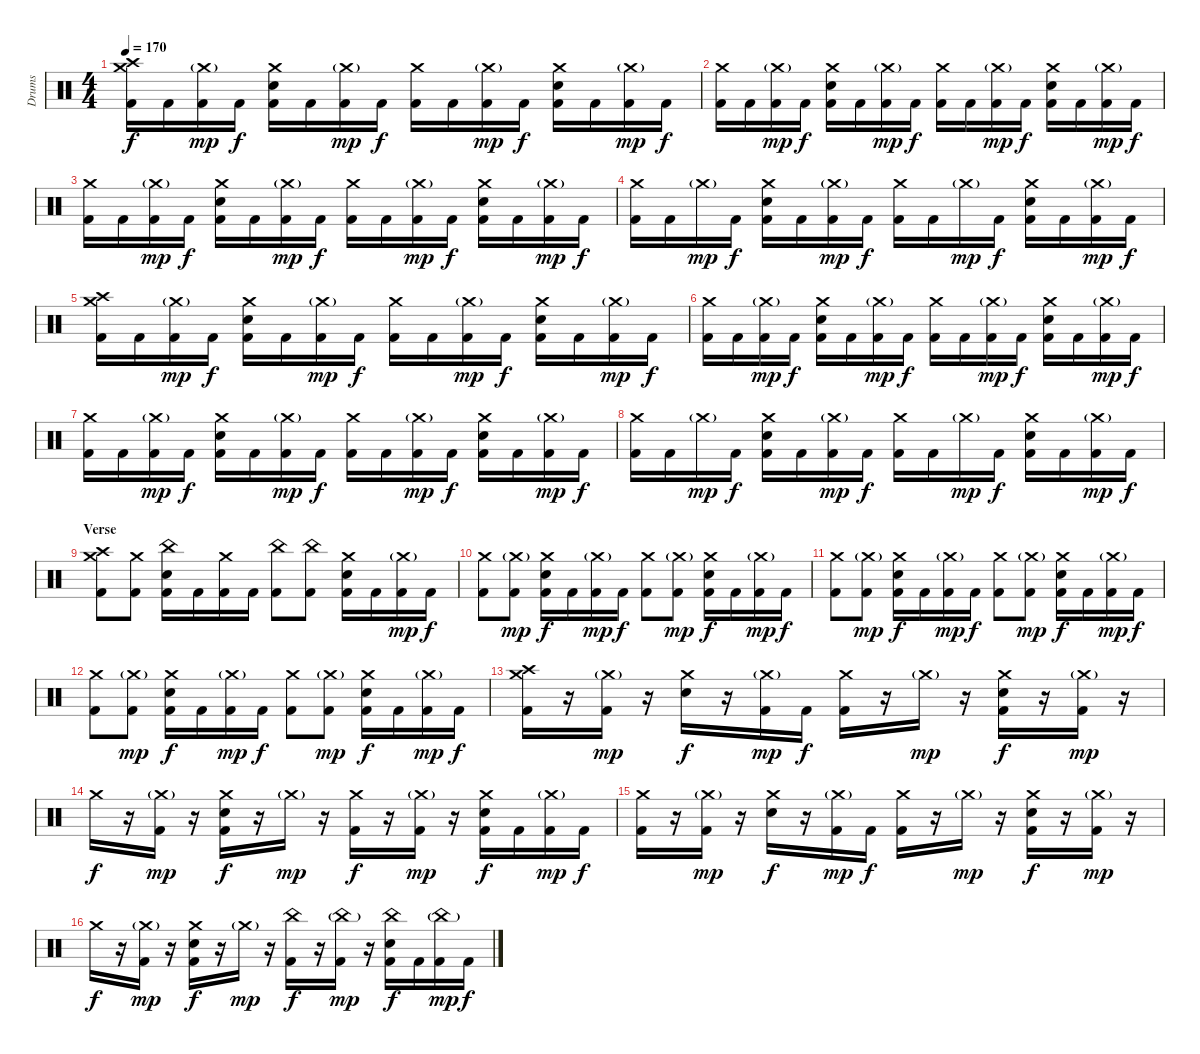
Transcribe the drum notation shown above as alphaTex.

\track ("Drums" "Drums") {instrument percussion}
\staff {score}
\articulation defaults
\ts (4 4)
\tempo 170
\clef neutral
\ks c
("Crash medium (hit)" "Crash high (hit)" "Kick (hit) 2").16{dy f} "Kick (hit) 2".16 ("Crash medium (hit)"{g} "Kick (hit) 2").16{dy mp} "Kick (hit) 2".16{dy f} ("Crash medium (hit)" "Electric Snare (hit)" "Kick (hit) 2").16 "Kick (hit) 2".16 ("Crash medium (hit)"{g} "Kick (hit) 2").16{dy mp} "Kick (hit) 2".16{dy f} ("Crash medium (hit)" "Kick (hit) 2").16 "Kick (hit) 2".16 ("Crash medium (hit)"{g} "Kick (hit) 2").16{dy mp} "Kick (hit) 2".16{dy f} ("Crash medium (hit)" "Electric Snare (hit)" "Kick (hit) 2").16 "Kick (hit) 2".16 ("Crash medium (hit)"{g} "Kick (hit) 2").16{dy mp} "Kick (hit) 2".16{dy f} |
("Crash medium (hit)" "Kick (hit) 2").16 "Kick (hit) 2".16 ("Crash medium (hit)"{g} "Kick (hit) 2").16{dy mp} "Kick (hit) 2".16{dy f} ("Crash medium (hit)" "Electric Snare (hit)" "Kick (hit) 2").16 "Kick (hit) 2".16 ("Crash medium (hit)"{g} "Kick (hit) 2").16{dy mp} "Kick (hit) 2".16{dy f} ("Crash medium (hit)" "Kick (hit) 2").16 "Kick (hit) 2".16 ("Crash medium (hit)"{g} "Kick (hit) 2").16{dy mp} "Kick (hit) 2".16{dy f} ("Crash medium (hit)" "Electric Snare (hit)" "Kick (hit) 2").16 "Kick (hit) 2".16 ("Crash medium (hit)"{g} "Kick (hit) 2").16{dy mp} "Kick (hit) 2".16{dy f} |
("Crash medium (hit)" "Kick (hit) 2").16 "Kick (hit) 2".16 ("Crash medium (hit)"{g} "Kick (hit) 2").16{dy mp} "Kick (hit) 2".16{dy f} ("Crash medium (hit)" "Electric Snare (hit)" "Kick (hit) 2").16 "Kick (hit) 2".16 ("Crash medium (hit)"{g} "Kick (hit) 2").16{dy mp} "Kick (hit) 2".16{dy f} ("Crash medium (hit)" "Kick (hit) 2").16 "Kick (hit) 2".16 ("Crash medium (hit)"{g} "Kick (hit) 2").16{dy mp} "Kick (hit) 2".16{dy f} ("Crash medium (hit)" "Electric Snare (hit)" "Kick (hit) 2").16 "Kick (hit) 2".16 ("Crash medium (hit)"{g} "Kick (hit) 2").16{dy mp} "Kick (hit) 2".16{dy f} |
("Crash medium (hit)" "Kick (hit) 2").16 "Kick (hit) 2".16 "Crash medium (hit)"{g}.16{dy mp} "Kick (hit) 2".16{dy f} ("Crash medium (hit)" "Electric Snare (hit)" "Kick (hit) 2").16 "Kick (hit) 2".16 ("Crash medium (hit)"{g} "Kick (hit) 2").16{dy mp} "Kick (hit) 2".16{dy f} ("Crash medium (hit)" "Kick (hit) 2").16 "Kick (hit) 2".16 "Crash medium (hit)"{g}.16{dy mp} "Kick (hit) 2".16{dy f} ("Crash medium (hit)" "Electric Snare (hit)" "Kick (hit) 2").16 "Kick (hit) 2".16 ("Crash medium (hit)"{g} "Kick (hit) 2").16{dy mp} "Kick (hit) 2".16{dy f} |
("Crash medium (hit)" "Crash high (hit)" "Kick (hit) 2").16 "Kick (hit) 2".16 ("Crash medium (hit)"{g} "Kick (hit) 2").16{dy mp} "Kick (hit) 2".16{dy f} ("Crash medium (hit)" "Electric Snare (hit)" "Kick (hit) 2").16 "Kick (hit) 2".16 ("Crash medium (hit)"{g} "Kick (hit) 2").16{dy mp} "Kick (hit) 2".16{dy f} ("Crash medium (hit)" "Kick (hit) 2").16 "Kick (hit) 2".16 ("Crash medium (hit)"{g} "Kick (hit) 2").16{dy mp} "Kick (hit) 2".16{dy f} ("Crash medium (hit)" "Electric Snare (hit)" "Kick (hit) 2").16 "Kick (hit) 2".16 ("Crash medium (hit)"{g} "Kick (hit) 2").16{dy mp} "Kick (hit) 2".16{dy f} |
("Crash medium (hit)" "Kick (hit) 2").16 "Kick (hit) 2".16 ("Crash medium (hit)"{g} "Kick (hit) 2").16{dy mp} "Kick (hit) 2".16{dy f} ("Crash medium (hit)" "Electric Snare (hit)" "Kick (hit) 2").16 "Kick (hit) 2".16 ("Crash medium (hit)"{g} "Kick (hit) 2").16{dy mp} "Kick (hit) 2".16{dy f} ("Crash medium (hit)" "Kick (hit) 2").16 "Kick (hit) 2".16 ("Crash medium (hit)"{g} "Kick (hit) 2").16{dy mp} "Kick (hit) 2".16{dy f} ("Crash medium (hit)" "Electric Snare (hit)" "Kick (hit) 2").16 "Kick (hit) 2".16 ("Crash medium (hit)"{g} "Kick (hit) 2").16{dy mp} "Kick (hit) 2".16{dy f} |
("Crash medium (hit)" "Kick (hit) 2").16 "Kick (hit) 2".16 ("Crash medium (hit)"{g} "Kick (hit) 2").16{dy mp} "Kick (hit) 2".16{dy f} ("Crash medium (hit)" "Electric Snare (hit)" "Kick (hit) 2").16 "Kick (hit) 2".16 ("Crash medium (hit)"{g} "Kick (hit) 2").16{dy mp} "Kick (hit) 2".16{dy f} ("Crash medium (hit)" "Kick (hit) 2").16 "Kick (hit) 2".16 ("Crash medium (hit)"{g} "Kick (hit) 2").16{dy mp} "Kick (hit) 2".16{dy f} ("Crash medium (hit)" "Electric Snare (hit)" "Kick (hit) 2").16 "Kick (hit) 2".16 ("Crash medium (hit)"{g} "Kick (hit) 2").16{dy mp} "Kick (hit) 2".16{dy f} |
("Crash medium (hit)" "Kick (hit) 2").16 "Kick (hit) 2".16 "Crash medium (hit)"{g}.16{dy mp} "Kick (hit) 2".16{dy f} ("Crash medium (hit)" "Electric Snare (hit)" "Kick (hit) 2").16 "Kick (hit) 2".16 ("Crash medium (hit)"{g} "Kick (hit) 2").16{dy mp} "Kick (hit) 2".16{dy f} ("Crash medium (hit)" "Kick (hit) 2").16 "Kick (hit) 2".16 "Crash medium (hit)"{g}.16{dy mp} "Kick (hit) 2".16{dy f} ("Crash medium (hit)" "Electric Snare (hit)" "Kick (hit) 2").16 "Kick (hit) 2".16 ("Crash medium (hit)"{g} "Kick (hit) 2").16{dy mp} "Kick (hit) 2".16{dy f} |
\section ("" "Verse")
("Crash medium (hit)" "Crash high (hit)" "Kick (hit) 2").8 ("Crash medium (hit)" "Kick (hit) 2").8 ("China (hit)" "Electric Snare (hit)" "Kick (hit) 2").16 "Kick (hit) 2".16 ("Crash medium (hit)" "Kick (hit) 2").16 "Kick (hit) 2".16 ("China (hit)" "Kick (hit) 2").8 ("China (hit)" "Kick (hit) 2").8 ("Crash medium (hit)" "Electric Snare (hit)" "Kick (hit) 2").16 "Kick (hit) 2".16 ("Crash medium (hit)"{g} "Kick (hit) 2").16{dy mp} "Kick (hit) 2".16{dy f} |
("Crash medium (hit)" "Kick (hit) 2").8 ("Crash medium (hit)"{g} "Kick (hit) 2").8{dy mp} ("Crash medium (hit)" "Electric Snare (hit)" "Kick (hit) 2").16{dy f} "Kick (hit) 2".16 ("Crash medium (hit)"{g} "Kick (hit) 2").16{dy mp} "Kick (hit) 2".16{dy f} ("Crash medium (hit)" "Kick (hit) 2").8 ("Crash medium (hit)"{g} "Kick (hit) 2").8{dy mp} ("Crash medium (hit)" "Electric Snare (hit)" "Kick (hit) 2").16{dy f} "Kick (hit) 2".16 ("Crash medium (hit)"{g} "Kick (hit) 2").16{dy mp} "Kick (hit) 2".16{dy f} |
("Crash medium (hit)" "Kick (hit) 2").8 ("Crash medium (hit)"{g} "Kick (hit) 2").8{dy mp} ("Crash medium (hit)" "Electric Snare (hit)" "Kick (hit) 2").16{dy f} "Kick (hit) 2".16 ("Crash medium (hit)"{g} "Kick (hit) 2").16{dy mp} "Kick (hit) 2".16{dy f} ("Crash medium (hit)" "Kick (hit) 2").8 ("Crash medium (hit)"{g} "Kick (hit) 2").8{dy mp} ("Crash medium (hit)" "Electric Snare (hit)" "Kick (hit) 2").16{dy f} "Kick (hit) 2".16 ("Crash medium (hit)"{g} "Kick (hit) 2").16{dy mp} "Kick (hit) 2".16{dy f} |
("Crash medium (hit)" "Kick (hit) 2").8 ("Crash medium (hit)"{g} "Kick (hit) 2").8{dy mp} ("Crash medium (hit)" "Electric Snare (hit)" "Kick (hit) 2").16{dy f} "Kick (hit) 2".16 ("Crash medium (hit)"{g} "Kick (hit) 2").16{dy mp} "Kick (hit) 2".16{dy f} ("Crash medium (hit)" "Kick (hit) 2").8 ("Crash medium (hit)"{g} "Kick (hit) 2").8{dy mp} ("Crash medium (hit)" "Electric Snare (hit)" "Kick (hit) 2").16{dy f} "Kick (hit) 2".16 ("Crash medium (hit)"{g} "Kick (hit) 2").16{dy mp} "Kick (hit) 2".16{dy f} |
("Crash medium (hit)" "Crash high (hit)" "Kick (hit) 2").16 r.16 ("Crash medium (hit)"{g} "Kick (hit) 2").16{dy mp} r.16 ("Crash medium (hit)" "Electric Snare (hit)").16{dy f} r.16 ("Crash medium (hit)"{g} "Kick (hit) 2").16{dy mp} "Kick (hit) 2".16{dy f} ("Crash medium (hit)" "Kick (hit) 2").16 r.16 "Crash medium (hit)"{g}.16{dy mp} r.16 ("Crash medium (hit)" "Electric Snare (hit)" "Kick (hit) 2").16{dy f} r.16 ("Crash medium (hit)"{g} "Kick (hit) 2").16{dy mp} r.16 |
"Crash medium (hit)".16{dy f} r.16 ("Crash medium (hit)"{g} "Kick (hit) 2").16{dy mp} r.16 ("Crash medium (hit)" "Electric Snare (hit)" "Kick (hit) 2").16{dy f} r.16 "Crash medium (hit)"{g}.16{dy mp} r.16 ("Crash medium (hit)" "Kick (hit) 2").16{dy f} r.16 ("Crash medium (hit)"{g} "Kick (hit) 2").16{dy mp} r.16 ("Crash medium (hit)" "Electric Snare (hit)" "Kick (hit) 2").16{dy f} "Kick (hit) 2".16 ("Crash medium (hit)"{g} "Kick (hit) 2").16{dy mp} "Kick (hit) 2".16{dy f} |
("Crash medium (hit)" "Kick (hit) 2").16 r.16 ("Crash medium (hit)"{g} "Kick (hit) 2").16{dy mp} r.16 ("Crash medium (hit)" "Electric Snare (hit)").16{dy f} r.16 ("Crash medium (hit)"{g} "Kick (hit) 2").16{dy mp} "Kick (hit) 2".16{dy f} ("Crash medium (hit)" "Kick (hit) 2").16 r.16 "Crash medium (hit)"{g}.16{dy mp} r.16 ("Crash medium (hit)" "Electric Snare (hit)" "Kick (hit) 2").16{dy f} r.16 ("Crash medium (hit)"{g} "Kick (hit) 2").16{dy mp} r.16 |
"Crash medium (hit)".16{dy f} r.16 ("Crash medium (hit)"{g} "Kick (hit) 2").16{dy mp} r.16 ("Crash medium (hit)" "Electric Snare (hit)" "Kick (hit) 2").16{dy f} r.16 "Crash medium (hit)"{g}.16{dy mp} r.16 ("China (hit)" "Kick (hit) 2").16{dy f} r.16 ("China (hit)"{g} "Kick (hit) 2").16{dy mp} r.16 ("China (hit)" "Electric Snare (hit)" "Kick (hit) 2").16{dy f} "Kick (hit) 2".16 ("China (hit)"{g} "Kick (hit) 2").16{dy mp} "Kick (hit) 2".16{dy f}
